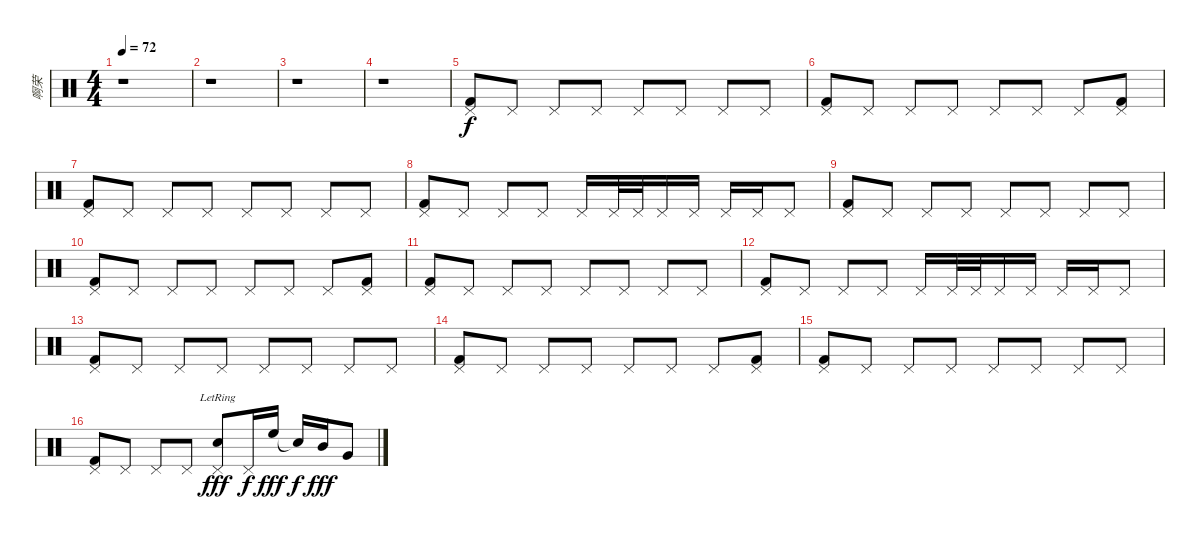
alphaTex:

\track ("啊荣" "啊荣") {instrument percussion}
\staff {score}
\articulation defaults
\ts (4 4)
\tempo 72
\clef neutral
\ks c
r.1{dy f} |
r.1 |
r.1 |
r.1 |
("Pedal Hi-Hat (hit)" "Kick (hit) 2").8 "Pedal Hi-Hat (hit)".8 "Pedal Hi-Hat (hit)".8 "Pedal Hi-Hat (hit)".8 "Pedal Hi-Hat (hit)".8 "Pedal Hi-Hat (hit)".8 "Pedal Hi-Hat (hit)".8 "Pedal Hi-Hat (hit)".8 |
("Pedal Hi-Hat (hit)" "Kick (hit) 2").8 "Pedal Hi-Hat (hit)".8 "Pedal Hi-Hat (hit)".8 "Pedal Hi-Hat (hit)".8 "Pedal Hi-Hat (hit)".8 "Pedal Hi-Hat (hit)".8 "Pedal Hi-Hat (hit)".8 ("Pedal Hi-Hat (hit)" "Kick (hit) 2").8 |
("Pedal Hi-Hat (hit)" "Kick (hit) 2").8 "Pedal Hi-Hat (hit)".8 "Pedal Hi-Hat (hit)".8 "Pedal Hi-Hat (hit)".8 "Pedal Hi-Hat (hit)".8 "Pedal Hi-Hat (hit)".8 "Pedal Hi-Hat (hit)".8 "Pedal Hi-Hat (hit)".8 |
("Pedal Hi-Hat (hit)" "Kick (hit) 2").8 "Pedal Hi-Hat (hit)".8 "Pedal Hi-Hat (hit)".8 "Pedal Hi-Hat (hit)".8 "Pedal Hi-Hat (hit)".16 "Pedal Hi-Hat (hit)".32 "Pedal Hi-Hat (hit)".32 "Pedal Hi-Hat (hit)".16 "Pedal Hi-Hat (hit)".16 "Pedal Hi-Hat (hit)".16 "Pedal Hi-Hat (hit)".16 "Pedal Hi-Hat (hit)".8 |
("Pedal Hi-Hat (hit)" "Kick (hit) 2").8 "Pedal Hi-Hat (hit)".8 "Pedal Hi-Hat (hit)".8 "Pedal Hi-Hat (hit)".8 "Pedal Hi-Hat (hit)".8 "Pedal Hi-Hat (hit)".8 "Pedal Hi-Hat (hit)".8 "Pedal Hi-Hat (hit)".8 |
("Pedal Hi-Hat (hit)" "Kick (hit) 2").8 "Pedal Hi-Hat (hit)".8 "Pedal Hi-Hat (hit)".8 "Pedal Hi-Hat (hit)".8 "Pedal Hi-Hat (hit)".8 "Pedal Hi-Hat (hit)".8 "Pedal Hi-Hat (hit)".8 ("Pedal Hi-Hat (hit)" "Kick (hit) 2").8 |
("Pedal Hi-Hat (hit)" "Kick (hit) 2").8 "Pedal Hi-Hat (hit)".8 "Pedal Hi-Hat (hit)".8 "Pedal Hi-Hat (hit)".8 "Pedal Hi-Hat (hit)".8 "Pedal Hi-Hat (hit)".8 "Pedal Hi-Hat (hit)".8 "Pedal Hi-Hat (hit)".8 |
("Pedal Hi-Hat (hit)" "Kick (hit) 2").8 "Pedal Hi-Hat (hit)".8 "Pedal Hi-Hat (hit)".8 "Pedal Hi-Hat (hit)".8 "Pedal Hi-Hat (hit)".16 "Pedal Hi-Hat (hit)".32 "Pedal Hi-Hat (hit)".32 "Pedal Hi-Hat (hit)".16 "Pedal Hi-Hat (hit)".16 "Pedal Hi-Hat (hit)".16 "Pedal Hi-Hat (hit)".16 "Pedal Hi-Hat (hit)".8 |
("Pedal Hi-Hat (hit)" "Kick (hit) 2").8 "Pedal Hi-Hat (hit)".8 "Pedal Hi-Hat (hit)".8 "Pedal Hi-Hat (hit)".8 "Pedal Hi-Hat (hit)".8 "Pedal Hi-Hat (hit)".8 "Pedal Hi-Hat (hit)".8 "Pedal Hi-Hat (hit)".8 |
("Pedal Hi-Hat (hit)" "Kick (hit) 2").8 "Pedal Hi-Hat (hit)".8 "Pedal Hi-Hat (hit)".8 "Pedal Hi-Hat (hit)".8 "Pedal Hi-Hat (hit)".8 "Pedal Hi-Hat (hit)".8 "Pedal Hi-Hat (hit)".8 ("Pedal Hi-Hat (hit)" "Kick (hit) 2").8 |
("Pedal Hi-Hat (hit)" "Kick (hit) 2").8 "Pedal Hi-Hat (hit)".8 "Pedal Hi-Hat (hit)".8 "Pedal Hi-Hat (hit)".8 "Pedal Hi-Hat (hit)".8 "Pedal Hi-Hat (hit)".8 "Pedal Hi-Hat (hit)".8 "Pedal Hi-Hat (hit)".8 |
("Pedal Hi-Hat (hit)" "Kick (hit) 2").8 "Pedal Hi-Hat (hit)".8 "Pedal Hi-Hat (hit)".8 "Pedal Hi-Hat (hit)".8 ("Pedal Hi-Hat (hit)" "Electric Snare (hit)"{lr}).8{dy fff} "Pedal Hi-Hat (hit)".16{dy f} "High Floor Tom (hit)".16{dy fff} "Snare (hit)"{t}.16{dy f} "Mid Tom (hit)".16{dy fff} "Very Low Tom (hit)".8
